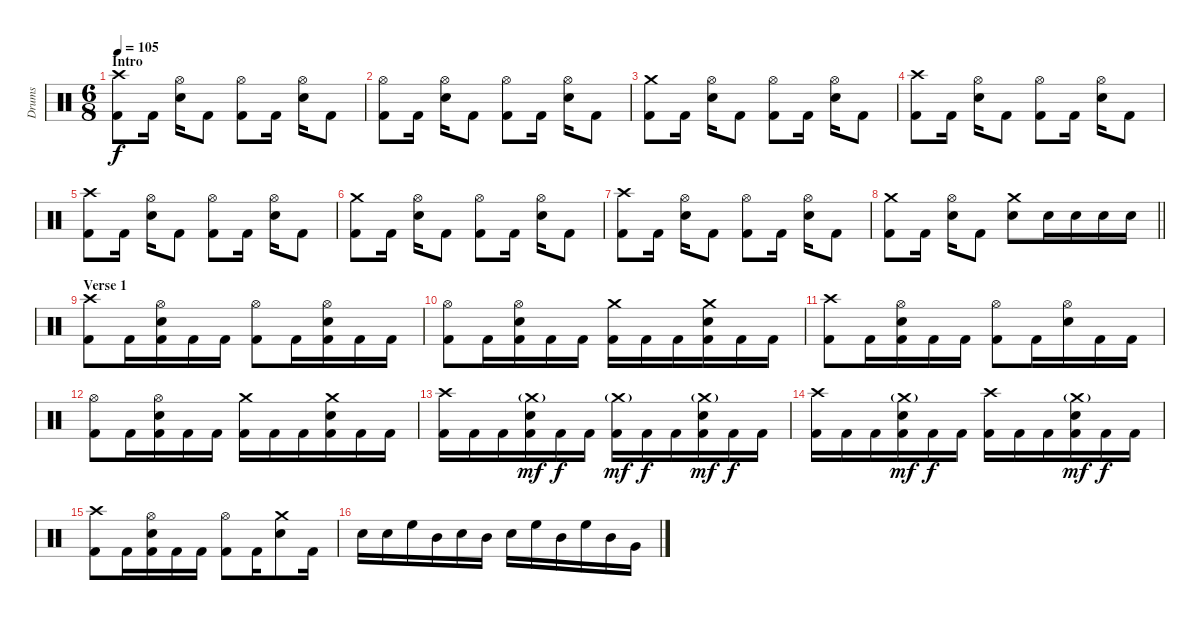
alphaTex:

\track ("Drums" "Drums") {instrument percussion}
\staff {score}
\articulation defaults
\ts (6 8)
\section ("" "Intro")
\tempo 105
\clef neutral
\ks c
("Crash high (hit)" "Kick (hit) 2").8{dy f} "Kick (hit) 2".16{beam split} ("Hi-Hat (open)" "Electric Snare (hit)").16 "Kick (hit) 2".8 ("Hi-Hat (open)" "Kick (hit) 2").8 "Kick (hit) 2".16{beam split} ("Hi-Hat (open)" "Electric Snare (hit)").16 "Kick (hit) 2".8 |
("Hi-Hat (open)" "Kick (hit) 2").8 "Kick (hit) 2".16{beam split} ("Hi-Hat (open)" "Electric Snare (hit)").16 "Kick (hit) 2".8 ("Hi-Hat (open)" "Kick (hit) 2").8 "Kick (hit) 2".16{beam split} ("Hi-Hat (open)" "Electric Snare (hit)").16 "Kick (hit) 2".8 |
("Crash medium (hit)" "Kick (hit) 2").8 "Kick (hit) 2".16{beam split} ("Hi-Hat (open)" "Electric Snare (hit)").16 "Kick (hit) 2".8 ("Hi-Hat (open)" "Kick (hit) 2").8 "Kick (hit) 2".16{beam split} ("Hi-Hat (open)" "Electric Snare (hit)").16 "Kick (hit) 2".8 |
("Crash high (hit)" "Kick (hit) 2").8 "Kick (hit) 2".16{beam split} ("Hi-Hat (open)" "Electric Snare (hit)").16 "Kick (hit) 2".8 ("Hi-Hat (open)" "Kick (hit) 2").8 "Kick (hit) 2".16{beam split} ("Hi-Hat (open)" "Electric Snare (hit)").16 "Kick (hit) 2".8 |
("Crash high (hit)" "Kick (hit) 2").8 "Kick (hit) 2".16{beam split} ("Hi-Hat (open)" "Electric Snare (hit)").16 "Kick (hit) 2".8 ("Hi-Hat (open)" "Kick (hit) 2").8 "Kick (hit) 2".16{beam split} ("Hi-Hat (open)" "Electric Snare (hit)").16 "Kick (hit) 2".8 |
("Crash medium (hit)" "Kick (hit) 2").8 "Kick (hit) 2".16{beam split} ("Hi-Hat (open)" "Electric Snare (hit)").16 "Kick (hit) 2".8 ("Hi-Hat (open)" "Kick (hit) 2").8 "Kick (hit) 2".16{beam split} ("Hi-Hat (open)" "Electric Snare (hit)").16 "Kick (hit) 2".8 |
("Crash high (hit)" "Kick (hit) 2").8 "Kick (hit) 2".16{beam split} ("Hi-Hat (open)" "Electric Snare (hit)").16 "Kick (hit) 2".8 ("Hi-Hat (open)" "Kick (hit) 2").8 "Kick (hit) 2".16{beam split} ("Hi-Hat (open)" "Electric Snare (hit)").16 "Kick (hit) 2".8 |
\barLineRight lightlight
("Crash medium (hit)" "Kick (hit) 2").8 "Kick (hit) 2".16{beam split} ("Hi-Hat (open)" "Electric Snare (hit)").16 "Kick (hit) 2".8 ("Crash medium (hit)" "Electric Snare (hit)").8 "Electric Snare (hit)".16 "Electric Snare (hit)".16 "Electric Snare (hit)".16 "Electric Snare (hit)".16 |
\section ("" "Verse 1")
("Crash high (hit)" "Kick (hit) 2").8 "Kick (hit) 2".16 ("Hi-Hat (open)" "Electric Snare (hit)" "Kick (hit) 2").16 "Kick (hit) 2".16 "Kick (hit) 2".16 ("Hi-Hat (open)" "Kick (hit) 2").8 "Kick (hit) 2".16 ("Hi-Hat (open)" "Electric Snare (hit)" "Kick (hit) 2").16 "Kick (hit) 2".16 "Kick (hit) 2".16 |
("Hi-Hat (open)" "Kick (hit) 2").8 "Kick (hit) 2".16 ("Hi-Hat (open)" "Electric Snare (hit)" "Kick (hit) 2").16 "Kick (hit) 2".16 "Kick (hit) 2".16 ("Crash medium (hit)" "Kick (hit) 2").16 "Kick (hit) 2".16 "Kick (hit) 2".16 ("Crash medium (hit)" "Electric Snare (hit)" "Kick (hit) 2").16 "Kick (hit) 2".16 "Kick (hit) 2".16 |
("Crash high (hit)" "Kick (hit) 2").8 "Kick (hit) 2".16 ("Hi-Hat (open)" "Electric Snare (hit)" "Kick (hit) 2").16 "Kick (hit) 2".16 "Kick (hit) 2".16 ("Hi-Hat (open)" "Kick (hit) 2").8 "Kick (hit) 2".16 ("Hi-Hat (open)" "Electric Snare (hit)").16 "Kick (hit) 2".16 "Kick (hit) 2".16 |
("Hi-Hat (open)" "Kick (hit) 2").8 "Kick (hit) 2".16 ("Hi-Hat (open)" "Electric Snare (hit)" "Kick (hit) 2").16 "Kick (hit) 2".16 "Kick (hit) 2".16 ("Crash medium (hit)" "Kick (hit) 2").16 "Kick (hit) 2".16 "Kick (hit) 2".16 ("Crash medium (hit)" "Electric Snare (hit)" "Kick (hit) 2").16 "Kick (hit) 2".16 "Kick (hit) 2".16 |
("Crash high (hit)" "Kick (hit) 2").16 "Kick (hit) 2".16 "Kick (hit) 2".16 ("Crash medium (hit)"{g} "Electric Snare (hit)" "Kick (hit) 2").16{dy mf} "Kick (hit) 2".16{dy f} "Kick (hit) 2".16 ("Crash medium (hit)"{g} "Kick (hit) 2").16{dy mf} "Kick (hit) 2".16{dy f} "Kick (hit) 2".16 ("Crash medium (hit)"{g} "Electric Snare (hit)" "Kick (hit) 2").16{dy mf} "Kick (hit) 2".16{dy f} "Kick (hit) 2".16 |
("Crash high (hit)" "Kick (hit) 2").16 "Kick (hit) 2".16 "Kick (hit) 2".16 ("Crash medium (hit)"{g} "Electric Snare (hit)" "Kick (hit) 2").16{dy mf} "Kick (hit) 2".16{dy f} "Kick (hit) 2".16 ("Crash high (hit)" "Kick (hit) 2").16 "Kick (hit) 2".16 "Kick (hit) 2".16 ("Crash medium (hit)"{g} "Electric Snare (hit)" "Kick (hit) 2").16{dy mf} "Kick (hit) 2".16{dy f} "Kick (hit) 2".16 |
("Crash high (hit)" "Kick (hit) 2").8 "Kick (hit) 2".16 ("Hi-Hat (open)" "Electric Snare (hit)" "Kick (hit) 2").16 "Kick (hit) 2".16 "Kick (hit) 2".16 ("Hi-Hat (open)" "Kick (hit) 2").8 "Kick (hit) 2".16 ("Crash medium (hit)" "Electric Snare (hit)").8 "Kick (hit) 2".16 |
"Electric Snare (hit)".16 "Electric Snare (hit)".16 "High Floor Tom (hit)".16 "Mid Tom (hit)".16 "Electric Snare (hit)".16 "Mid Tom (hit)".16 "Electric Snare (hit)".16 "High Floor Tom (hit)".16 "Mid Tom (hit)".16 "High Floor Tom (hit)".16 "Mid Tom (hit)".16 "Very Low Tom (hit)".16
